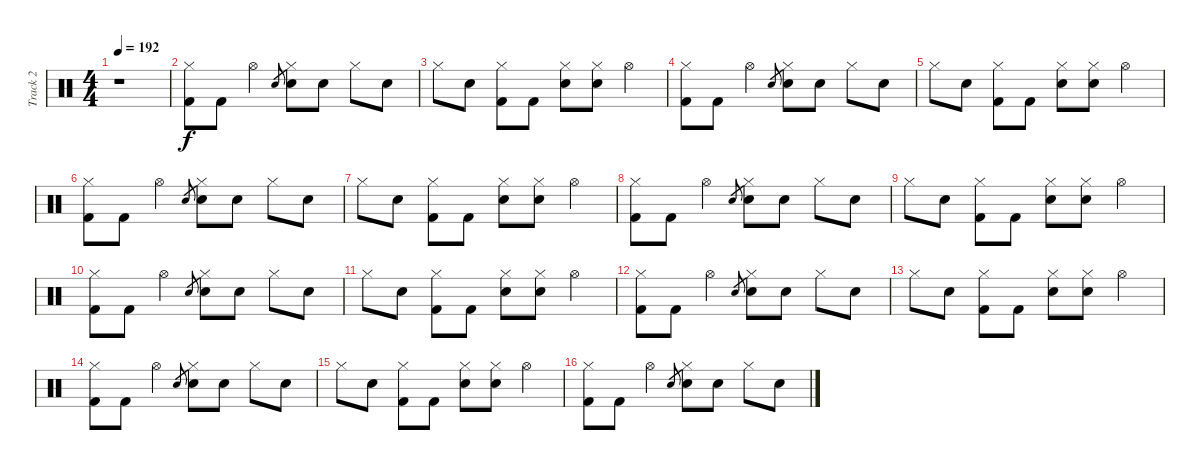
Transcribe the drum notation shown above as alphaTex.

\track ("Track 2" "Track 2") {instrument percussion}
\staff {score}
\articulation defaults
\ts (4 4)
\tempo 192
\clef neutral
\ks c
r.1{dy f} |
("Hi-Hat (closed)" "Kick (hit) 2").8 "Kick (hit) 2".8 "Hi-Hat (open)".4 "Electric Snare (hit)".8{gr} ("Hi-Hat (closed)" "Electric Snare (hit)").8 "Electric Snare (hit)".8 "Hi-Hat (closed)".8 "Electric Snare (hit)".8 |
"Hi-Hat (closed)".8 "Electric Snare (hit)".8 ("Hi-Hat (closed)" "Kick (hit) 2").8 "Kick (hit) 2".8 ("Hi-Hat (closed)" "Electric Snare (hit)").8 ("Hi-Hat (closed)" "Electric Snare (hit)").8 "Hi-Hat (open)".4 |
("Hi-Hat (closed)" "Kick (hit) 2").8 "Kick (hit) 2".8 "Hi-Hat (open)".4 "Electric Snare (hit)".8{gr} ("Hi-Hat (closed)" "Electric Snare (hit)").8 "Electric Snare (hit)".8 "Hi-Hat (closed)".8 "Electric Snare (hit)".8 |
"Hi-Hat (closed)".8 "Electric Snare (hit)".8 ("Hi-Hat (closed)" "Kick (hit) 2").8 "Kick (hit) 2".8 ("Hi-Hat (closed)" "Electric Snare (hit)").8 ("Hi-Hat (closed)" "Electric Snare (hit)").8 "Hi-Hat (open)".4 |
("Hi-Hat (closed)" "Kick (hit) 2").8 "Kick (hit) 2".8 "Hi-Hat (open)".4 "Electric Snare (hit)".8{gr} ("Hi-Hat (closed)" "Electric Snare (hit)").8 "Electric Snare (hit)".8 "Hi-Hat (closed)".8 "Electric Snare (hit)".8 |
"Hi-Hat (closed)".8 "Electric Snare (hit)".8 ("Hi-Hat (closed)" "Kick (hit) 2").8 "Kick (hit) 2".8 ("Hi-Hat (closed)" "Electric Snare (hit)").8 ("Hi-Hat (closed)" "Electric Snare (hit)").8 "Hi-Hat (open)".4 |
("Hi-Hat (closed)" "Kick (hit) 2").8 "Kick (hit) 2".8 "Hi-Hat (open)".4 "Electric Snare (hit)".8{gr} ("Hi-Hat (closed)" "Electric Snare (hit)").8 "Electric Snare (hit)".8 "Hi-Hat (closed)".8 "Electric Snare (hit)".8 |
"Hi-Hat (closed)".8 "Electric Snare (hit)".8 ("Hi-Hat (closed)" "Kick (hit) 2").8 "Kick (hit) 2".8 ("Hi-Hat (closed)" "Electric Snare (hit)").8 ("Hi-Hat (closed)" "Electric Snare (hit)").8 "Hi-Hat (open)".4 |
("Hi-Hat (closed)" "Kick (hit) 2").8 "Kick (hit) 2".8 "Hi-Hat (open)".4 "Electric Snare (hit)".8{gr} ("Hi-Hat (closed)" "Electric Snare (hit)").8 "Electric Snare (hit)".8 "Hi-Hat (closed)".8 "Electric Snare (hit)".8 |
"Hi-Hat (closed)".8 "Electric Snare (hit)".8 ("Hi-Hat (closed)" "Kick (hit) 2").8 "Kick (hit) 2".8 ("Hi-Hat (closed)" "Electric Snare (hit)").8 ("Hi-Hat (closed)" "Electric Snare (hit)").8 "Hi-Hat (open)".4 |
("Hi-Hat (closed)" "Kick (hit) 2").8 "Kick (hit) 2".8 "Hi-Hat (open)".4 "Electric Snare (hit)".8{gr} ("Hi-Hat (closed)" "Electric Snare (hit)").8 "Electric Snare (hit)".8 "Hi-Hat (closed)".8 "Electric Snare (hit)".8 |
"Hi-Hat (closed)".8 "Electric Snare (hit)".8 ("Hi-Hat (closed)" "Kick (hit) 2").8 "Kick (hit) 2".8 ("Hi-Hat (closed)" "Electric Snare (hit)").8 ("Hi-Hat (closed)" "Electric Snare (hit)").8 "Hi-Hat (open)".4 |
("Hi-Hat (closed)" "Kick (hit) 2").8 "Kick (hit) 2".8 "Hi-Hat (open)".4 "Electric Snare (hit)".8{gr} ("Hi-Hat (closed)" "Electric Snare (hit)").8 "Electric Snare (hit)".8 "Hi-Hat (closed)".8 "Electric Snare (hit)".8 |
"Hi-Hat (closed)".8 "Electric Snare (hit)".8 ("Hi-Hat (closed)" "Kick (hit) 2").8 "Kick (hit) 2".8 ("Hi-Hat (closed)" "Electric Snare (hit)").8 ("Hi-Hat (closed)" "Electric Snare (hit)").8 "Hi-Hat (open)".4 |
("Hi-Hat (closed)" "Kick (hit) 2").8 "Kick (hit) 2".8 "Hi-Hat (open)".4 "Electric Snare (hit)".8{gr} ("Hi-Hat (closed)" "Electric Snare (hit)").8 "Electric Snare (hit)".8 "Hi-Hat (closed)".8 "Electric Snare (hit)".8
